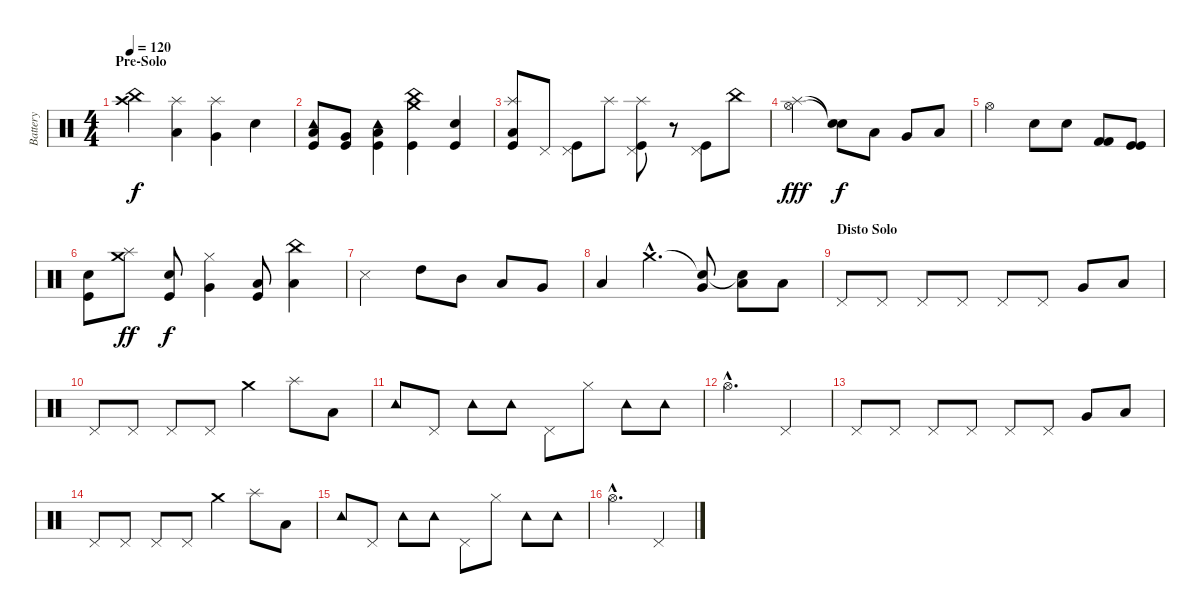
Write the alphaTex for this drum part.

\track ("Battery" "Battery") {instrument percussion}
\staff {score}
\articulation defaults
\ts (4 4)
\section ("" "Pre-Solo")
\tempo 120
\clef neutral
\ks c
("Crash high (hit)" "China (hit)").4{dy f} ("Low Tom (hit)" "Splash (hit)").4 ("Very Low Tom (hit)" "Splash (hit)").4 "Electric Snare (hit)".4 |
("Low Tom (hit)" "Tambourine (hit)" "Kick (hit)").8 ("Very Low Tom (hit)" "Kick (hit)").8 ("Low Floor Tom (hit)" "Tambourine (hit)" "Kick (hit)").4 ("China (hit)" "Crash medium (hit)" "Kick (hit)").4 ("Electric Snare (hit)" "Kick (hit)").4 |
("Splash (hit)" "Low Tom (hit)" "Kick (hit)").8 "Pedal Hi-Hat (hit)".8 ("Pedal Hi-Hat (hit)" "Kick (hit)").8 "Splash (hit)".8 ("Splash (hit)" "Pedal Hi-Hat (hit)" "Kick (hit)").8 r.8 ("Pedal Hi-Hat (hit)" "Kick (hit)").8 "China (hit)".8 |
("Splash (hit)" "Hi-Hat (open)").2{dy fff} ("Snare (hit)"{t} "Snare (hit)"{t}).8{dy f} "Low Tom (hit)".8 "Very Low Tom (hit)".8 "Low Floor Tom (hit)".8 |
"Hi-Hat (open)".2 "Electric Snare (hit)".8 "Electric Snare (hit)".8 ("Kick (hit) 2" "Kick (hit) 2").8 ("Kick (hit)" "Kick (hit)").8 |
("Electric Snare (hit)" "Kick (hit)").8 ("Splash (hit)" "Crash medium (hit)").8{dy ff} ("Electric Snare (hit)" "Kick (hit)").8{dy f} ("Hi-Hat (closed)" "Very Low Tom (hit)").4 ("Low Tom (hit)" "Kick (hit)").8 ("China (hit)" "Low Tom (hit)").4 |
"Snare (side stick) 3".2 "High Tom (hit)".8 "Mid Tom (hit)".8 "Low Tom (hit)".8 "Very Low Tom (hit)".8 |
"Low Floor Tom (hit)".4 "Crash medium (hit)"{hac}.4{d} ("Snare (hit)"{t} "Very Low Tom (hit)").8 ("Snare (hit)"{t} "Low Floor Tom (hit)").8 "Low Floor Tom (hit)".8 |
\section ("" "Disto Solo")
"Pedal Hi-Hat (hit)".8 "Pedal Hi-Hat (hit)".8 "Pedal Hi-Hat (hit)".8 "Pedal Hi-Hat (hit)".8 "Pedal Hi-Hat (hit)".8 "Pedal Hi-Hat (hit)".8 "Very Low Tom (hit)".8 "Low Floor Tom (hit)".8 |
"Pedal Hi-Hat (hit)".8 "Pedal Hi-Hat (hit)".8 "Pedal Hi-Hat (hit)".8 "Pedal Hi-Hat (hit)".8 "Crash medium (hit)".4 "Splash (hit)".8 "Low Floor Tom (hit)".8 |
"Tambourine (hit)".8 "Pedal Hi-Hat (hit)".8 "Tambourine (hit)".8 "Tambourine (hit)".8 "Pedal Hi-Hat (hit)".8 "Hi-Hat (closed)".8 "Tambourine (hit)".8 "Tambourine (hit)".8 |
"Hi-Hat (open)"{hac}.2{d} "Pedal Hi-Hat (hit)".4 |
"Pedal Hi-Hat (hit)".8 "Pedal Hi-Hat (hit)".8 "Pedal Hi-Hat (hit)".8 "Pedal Hi-Hat (hit)".8 "Pedal Hi-Hat (hit)".8 "Pedal Hi-Hat (hit)".8 "Very Low Tom (hit)".8 "Low Floor Tom (hit)".8 |
"Pedal Hi-Hat (hit)".8 "Pedal Hi-Hat (hit)".8 "Pedal Hi-Hat (hit)".8 "Pedal Hi-Hat (hit)".8 "Crash medium (hit)".4 "Splash (hit)".8 "Low Floor Tom (hit)".8 |
"Tambourine (hit)".8 "Pedal Hi-Hat (hit)".8 "Tambourine (hit)".8 "Tambourine (hit)".8 "Pedal Hi-Hat (hit)".8 "Hi-Hat (closed)".8 "Tambourine (hit)".8 "Tambourine (hit)".8 |
"Hi-Hat (open)"{hac}.2{d} "Pedal Hi-Hat (hit)".4
